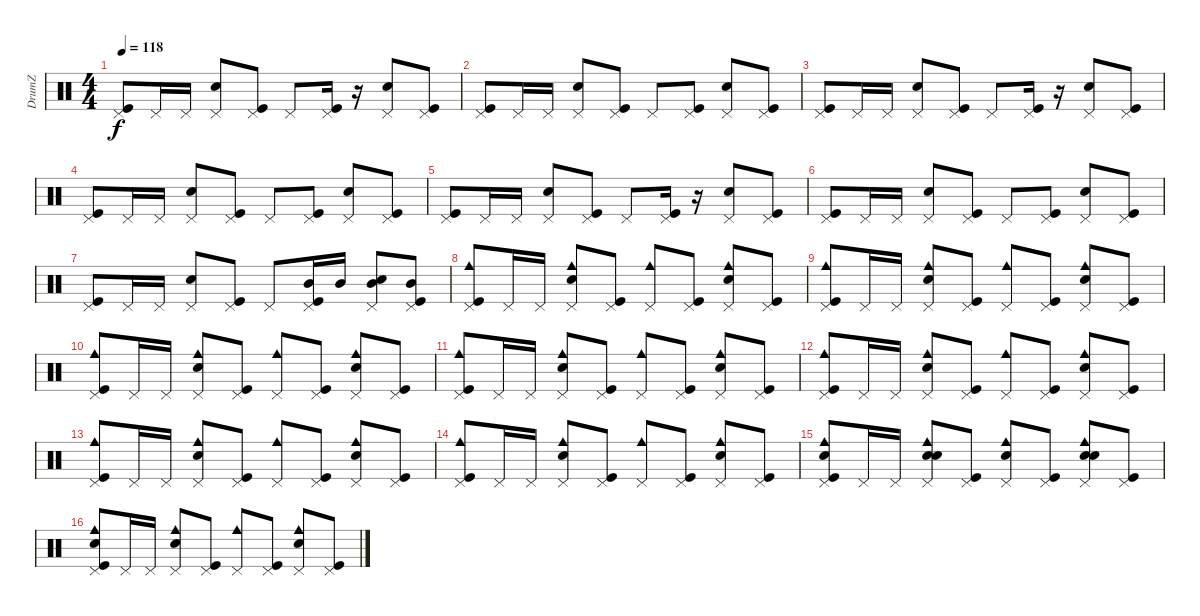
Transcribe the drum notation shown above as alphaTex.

\track ("DrumZ" "DrumZ") {instrument percussion}
\staff {score}
\articulation defaults
\ts (4 4)
\tempo 118
\clef neutral
\ks c
("Pedal Hi-Hat (hit)" "Kick (hit)").8{dy f} "Pedal Hi-Hat (hit)".16 "Pedal Hi-Hat (hit)".16 ("Pedal Hi-Hat (hit)" "Snare (hit) 2").8 ("Pedal Hi-Hat (hit)" "Kick (hit)").8 "Pedal Hi-Hat (hit)".8 ("Pedal Hi-Hat (hit)" "Kick (hit)").16 r.16 ("Pedal Hi-Hat (hit)" "Snare (hit) 2").8 ("Pedal Hi-Hat (hit)" "Kick (hit)").8 |
("Pedal Hi-Hat (hit)" "Kick (hit)").8 "Pedal Hi-Hat (hit)".16 "Pedal Hi-Hat (hit)".16 ("Pedal Hi-Hat (hit)" "Snare (hit) 2").8 ("Pedal Hi-Hat (hit)" "Kick (hit)").8 "Pedal Hi-Hat (hit)".8 ("Pedal Hi-Hat (hit)" "Kick (hit)").8 ("Pedal Hi-Hat (hit)" "Snare (hit) 2").8 ("Pedal Hi-Hat (hit)" "Kick (hit)").8 |
("Pedal Hi-Hat (hit)" "Kick (hit)").8 "Pedal Hi-Hat (hit)".16 "Pedal Hi-Hat (hit)".16 ("Pedal Hi-Hat (hit)" "Snare (hit) 2").8 ("Pedal Hi-Hat (hit)" "Kick (hit)").8 "Pedal Hi-Hat (hit)".8 ("Pedal Hi-Hat (hit)" "Kick (hit)").16 r.16 ("Pedal Hi-Hat (hit)" "Snare (hit) 2").8 ("Pedal Hi-Hat (hit)" "Kick (hit)").8 |
("Pedal Hi-Hat (hit)" "Kick (hit)").8 "Pedal Hi-Hat (hit)".16 "Pedal Hi-Hat (hit)".16 ("Pedal Hi-Hat (hit)" "Snare (hit) 2").8 ("Pedal Hi-Hat (hit)" "Kick (hit)").8 "Pedal Hi-Hat (hit)".8 ("Pedal Hi-Hat (hit)" "Kick (hit)").8 ("Pedal Hi-Hat (hit)" "Snare (hit) 2").8 ("Pedal Hi-Hat (hit)" "Kick (hit)").8 |
("Pedal Hi-Hat (hit)" "Kick (hit)").8 "Pedal Hi-Hat (hit)".16 "Pedal Hi-Hat (hit)".16 ("Pedal Hi-Hat (hit)" "Snare (hit) 2").8 ("Pedal Hi-Hat (hit)" "Kick (hit)").8 "Pedal Hi-Hat (hit)".8 ("Pedal Hi-Hat (hit)" "Kick (hit)").16 r.16 ("Pedal Hi-Hat (hit)" "Snare (hit) 2").8 ("Pedal Hi-Hat (hit)" "Kick (hit)").8 |
("Pedal Hi-Hat (hit)" "Kick (hit)").8 "Pedal Hi-Hat (hit)".16 "Pedal Hi-Hat (hit)".16 ("Pedal Hi-Hat (hit)" "Snare (hit) 2").8 ("Pedal Hi-Hat (hit)" "Kick (hit)").8 "Pedal Hi-Hat (hit)".8 ("Pedal Hi-Hat (hit)" "Kick (hit)").8 ("Pedal Hi-Hat (hit)" "Snare (hit) 2").8 ("Pedal Hi-Hat (hit)" "Kick (hit)").8 |
("Pedal Hi-Hat (hit)" "Kick (hit)").8 "Pedal Hi-Hat (hit)".16 "Pedal Hi-Hat (hit)".16 ("Pedal Hi-Hat (hit)" "Snare (hit) 2").8 ("Pedal Hi-Hat (hit)" "Kick (hit)").8 "Pedal Hi-Hat (hit)".8 ("Mid Tom (hit)" "Pedal Hi-Hat (hit)" "Kick (hit)").16 "Mid Tom (hit)".16 ("Mid Tom (hit)" "Pedal Hi-Hat (hit)" "Snare (hit) 2").8 ("Mid Tom (hit)" "Pedal Hi-Hat (hit)" "Kick (hit)").8 |
("Cowbell medium (hit)" "Pedal Hi-Hat (hit)" "Kick (hit)").8 "Pedal Hi-Hat (hit)".16 "Pedal Hi-Hat (hit)".16 ("Cowbell medium (hit)" "Pedal Hi-Hat (hit)" "Snare (hit) 2").8 ("Pedal Hi-Hat (hit)" "Kick (hit)").8 ("Cowbell medium (hit)" "Pedal Hi-Hat (hit)").8 ("Pedal Hi-Hat (hit)" "Kick (hit)").8 ("Cowbell medium (hit)" "Pedal Hi-Hat (hit)" "Snare (hit) 2").8 ("Pedal Hi-Hat (hit)" "Kick (hit)").8 |
("Cowbell medium (hit)" "Pedal Hi-Hat (hit)" "Kick (hit)").8 "Pedal Hi-Hat (hit)".16 "Pedal Hi-Hat (hit)".16 ("Cowbell medium (hit)" "Pedal Hi-Hat (hit)" "Snare (hit) 2").8 ("Pedal Hi-Hat (hit)" "Kick (hit)").8 ("Cowbell medium (hit)" "Pedal Hi-Hat (hit)").8 ("Pedal Hi-Hat (hit)" "Kick (hit)").8 ("Cowbell medium (hit)" "Pedal Hi-Hat (hit)" "Snare (hit) 2").8 ("Pedal Hi-Hat (hit)" "Kick (hit)").8 |
("Cowbell medium (hit)" "Pedal Hi-Hat (hit)" "Kick (hit)").8 "Pedal Hi-Hat (hit)".16 "Pedal Hi-Hat (hit)".16 ("Cowbell medium (hit)" "Pedal Hi-Hat (hit)" "Snare (hit) 2").8 ("Pedal Hi-Hat (hit)" "Kick (hit)").8 ("Cowbell medium (hit)" "Pedal Hi-Hat (hit)").8 ("Pedal Hi-Hat (hit)" "Kick (hit)").8 ("Cowbell medium (hit)" "Pedal Hi-Hat (hit)" "Snare (hit) 2").8 ("Pedal Hi-Hat (hit)" "Kick (hit)").8 |
("Cowbell medium (hit)" "Pedal Hi-Hat (hit)" "Kick (hit)").8 "Pedal Hi-Hat (hit)".16 "Pedal Hi-Hat (hit)".16 ("Cowbell medium (hit)" "Pedal Hi-Hat (hit)" "Snare (hit) 2").8 ("Pedal Hi-Hat (hit)" "Kick (hit)").8 ("Cowbell medium (hit)" "Pedal Hi-Hat (hit)").8 ("Pedal Hi-Hat (hit)" "Kick (hit)").8 ("Cowbell medium (hit)" "Pedal Hi-Hat (hit)" "Snare (hit) 2").8 ("Pedal Hi-Hat (hit)" "Kick (hit)").8 |
("Cowbell medium (hit)" "Pedal Hi-Hat (hit)" "Kick (hit)").8 "Pedal Hi-Hat (hit)".16 "Pedal Hi-Hat (hit)".16 ("Cowbell medium (hit)" "Pedal Hi-Hat (hit)" "Snare (hit) 2").8 ("Pedal Hi-Hat (hit)" "Kick (hit)").8 ("Cowbell medium (hit)" "Pedal Hi-Hat (hit)").8 ("Pedal Hi-Hat (hit)" "Kick (hit)").8 ("Cowbell medium (hit)" "Pedal Hi-Hat (hit)" "Snare (hit) 2").8 ("Pedal Hi-Hat (hit)" "Kick (hit)").8 |
("Cowbell medium (hit)" "Pedal Hi-Hat (hit)" "Kick (hit)").8 "Pedal Hi-Hat (hit)".16 "Pedal Hi-Hat (hit)".16 ("Cowbell medium (hit)" "Pedal Hi-Hat (hit)" "Snare (hit) 2").8 ("Pedal Hi-Hat (hit)" "Kick (hit)").8 ("Cowbell medium (hit)" "Pedal Hi-Hat (hit)").8 ("Pedal Hi-Hat (hit)" "Kick (hit)").8 ("Cowbell medium (hit)" "Pedal Hi-Hat (hit)" "Snare (hit) 2").8 ("Pedal Hi-Hat (hit)" "Kick (hit)").8 |
("Cowbell medium (hit)" "Pedal Hi-Hat (hit)" "Kick (hit)").8 "Pedal Hi-Hat (hit)".16 "Pedal Hi-Hat (hit)".16 ("Cowbell medium (hit)" "Pedal Hi-Hat (hit)" "Snare (hit) 2").8 ("Pedal Hi-Hat (hit)" "Kick (hit)").8 ("Cowbell medium (hit)" "Pedal Hi-Hat (hit)").8 ("Pedal Hi-Hat (hit)" "Kick (hit)").8 ("Cowbell medium (hit)" "Pedal Hi-Hat (hit)" "Snare (hit) 2").8 ("Pedal Hi-Hat (hit)" "Kick (hit)").8 |
("Hand Clap (hit)" "Cowbell medium (hit)" "Pedal Hi-Hat (hit)" "Kick (hit)").8 "Pedal Hi-Hat (hit)".16 "Pedal Hi-Hat (hit)".16 ("Hand Clap (hit)" "Cowbell medium (hit)" "Pedal Hi-Hat (hit)" "Snare (hit) 2").8 ("Pedal Hi-Hat (hit)" "Kick (hit)").8 ("Hand Clap (hit)" "Cowbell medium (hit)" "Pedal Hi-Hat (hit)").8 ("Pedal Hi-Hat (hit)" "Kick (hit)").8 ("Hand Clap (hit)" "Cowbell medium (hit)" "Pedal Hi-Hat (hit)" "Snare (hit) 2").8 ("Pedal Hi-Hat (hit)" "Kick (hit)").8 |
("Hand Clap (hit)" "Cowbell medium (hit)" "Pedal Hi-Hat (hit)" "Kick (hit)").8 "Pedal Hi-Hat (hit)".16 "Pedal Hi-Hat (hit)".16 ("Cowbell medium (hit)" "Pedal Hi-Hat (hit)" "Snare (hit) 2").8 ("Pedal Hi-Hat (hit)" "Kick (hit)").8 ("Cowbell medium (hit)" "Pedal Hi-Hat (hit)").8 ("Pedal Hi-Hat (hit)" "Kick (hit)").8 ("Cowbell medium (hit)" "Pedal Hi-Hat (hit)" "Snare (hit) 2").8 ("Pedal Hi-Hat (hit)" "Kick (hit)").8
